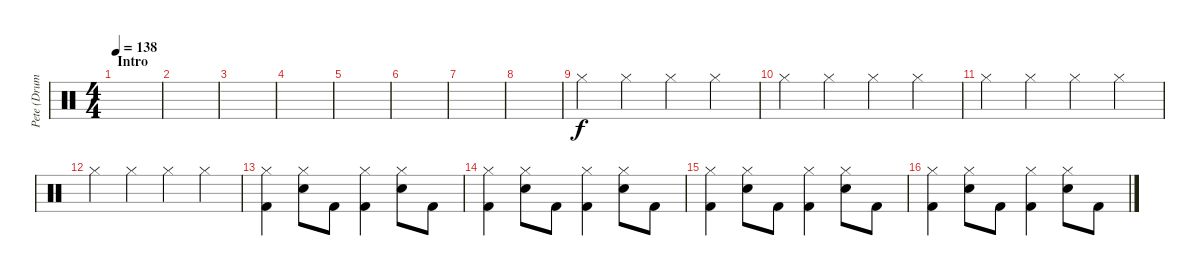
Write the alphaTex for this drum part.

\track ("Pete (Drums)" "Pete (Drum") {instrument percussion}
\staff {score}
\articulation defaults
\ts (4 4)
\section ("" "Intro")
\tempo 138
\clef neutral
\ks c
|
|
|
|
|
|
|
|
"Hi-Hat (closed)".4 "Hi-Hat (closed)".4 "Hi-Hat (closed)".4 "Hi-Hat (closed)".4 |
"Hi-Hat (closed)".4 "Hi-Hat (closed)".4 "Hi-Hat (closed)".4 "Hi-Hat (closed)".4 |
"Hi-Hat (closed)".4 "Hi-Hat (closed)".4 "Hi-Hat (closed)".4 "Hi-Hat (closed)".4 |
"Hi-Hat (closed)".4 "Hi-Hat (closed)".4 "Hi-Hat (closed)".4 "Hi-Hat (closed)".4 |
("Kick (hit) 2" "Hi-Hat (closed)").4 ("Snare (hit)"{x} "Hi-Hat (closed)").8 "Kick (hit) 2".8 ("Kick (hit) 2" "Hi-Hat (closed)").4 ("Snare (hit)"{x} "Hi-Hat (closed)").8 "Kick (hit) 2".8 |
("Kick (hit) 2" "Hi-Hat (closed)").4 ("Snare (hit)"{x} "Hi-Hat (closed)").8 "Kick (hit) 2".8 ("Kick (hit) 2" "Hi-Hat (closed)").4 ("Snare (hit)"{x} "Hi-Hat (closed)").8 "Kick (hit) 2".8 |
("Kick (hit) 2" "Hi-Hat (closed)").4 ("Snare (hit)"{x} "Hi-Hat (closed)").8 "Kick (hit) 2".8 ("Kick (hit) 2" "Hi-Hat (closed)").4 ("Snare (hit)"{x} "Hi-Hat (closed)").8 "Kick (hit) 2".8 |
("Kick (hit) 2" "Hi-Hat (closed)").4 ("Snare (hit)"{x} "Hi-Hat (closed)").8 "Kick (hit) 2".8 ("Kick (hit) 2" "Hi-Hat (closed)").4 ("Snare (hit)"{x} "Hi-Hat (closed)").8 "Kick (hit) 2".8
